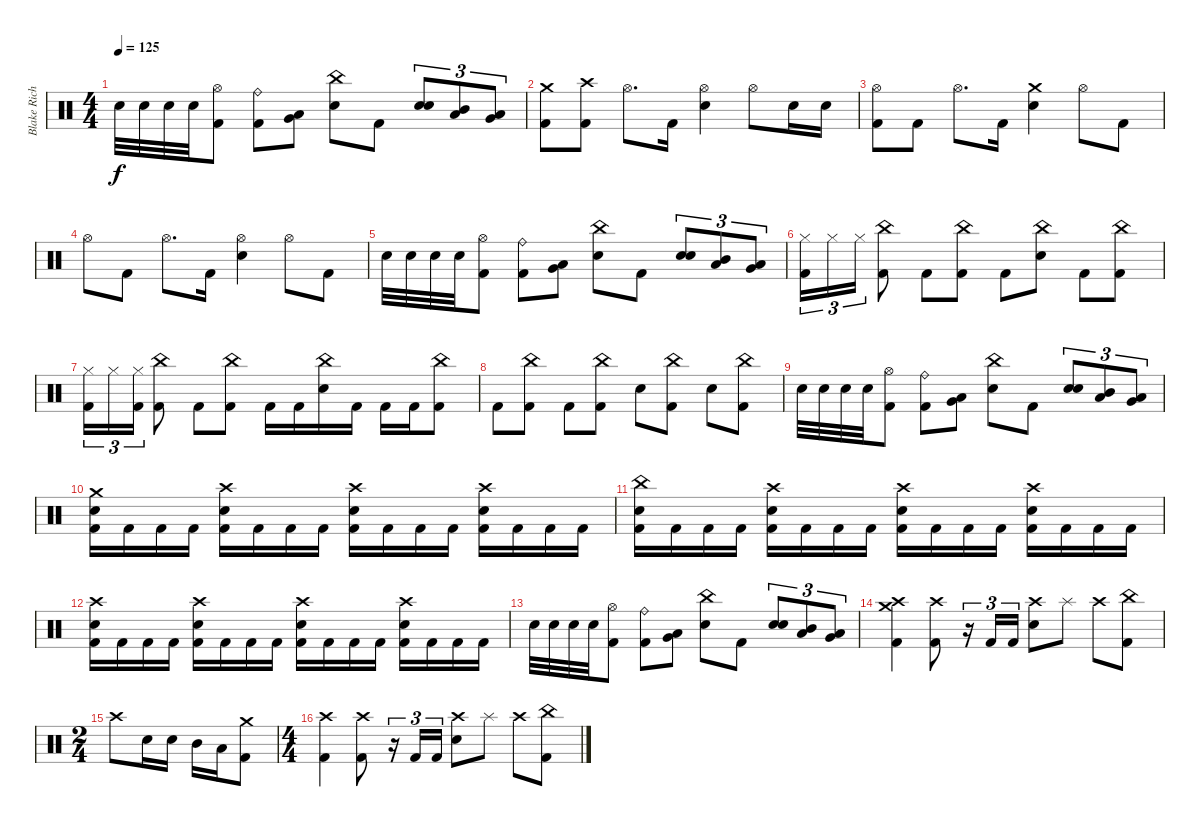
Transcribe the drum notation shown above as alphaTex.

\track ("Blake Richardson - Drums" "Blake Rich") {instrument percussion}
\staff {score}
\articulation defaults
\ts (4 4)
\tempo 125
\clef neutral
\ks c "Electric Snare (hit)".32{dy f} "Electric Snare (hit)".32 "Electric Snare (hit)".32 "Electric Snare (hit)".32
("Hi-Hat (open)" "Kick (hit) 2").8 ("Ride (bell)" "Kick (hit) 2").8 ("Low Tom (hit)" "Very Low Tom (hit)").8 ("China (hit)" "Electric Snare (hit)").8 "Kick (hit) 2".8 ("Electric Snare (hit)" "Electric Snare (hit)").8{tu (3 2)} ("Mid Tom (hit)" "Low Tom (hit)").8{tu (3 2)} ("Low Tom (hit)" "Very Low Tom (hit)").8{tu (3 2)} |
("Crash medium (hit)" "Kick (hit) 2").8 ("Crash high (hit)" "Kick (hit) 2").8 "Hi-Hat (open)".8{d} "Kick (hit) 2".16 ("Hi-Hat (open)" "Electric Snare (hit)").4 "Hi-Hat (open)".8 "Electric Snare (hit)".16 "Electric Snare (hit)".16 |
("Hi-Hat (open)" "Kick (hit) 2").8 "Kick (hit) 2".8 "Hi-Hat (open)".8{d} "Kick (hit) 2".16 ("Crash medium (hit)" "Electric Snare (hit)").4 "Hi-Hat (open)".8 "Kick (hit) 2".8 |
"Hi-Hat (open)".8 "Kick (hit) 2".8 "Hi-Hat (open)".8{d} "Kick (hit) 2".16 ("Hi-Hat (open)" "Electric Snare (hit)").4 "Hi-Hat (open)".8 "Kick (hit) 2".8 |
"Electric Snare (hit)".32 "Electric Snare (hit)".32 "Electric Snare (hit)".32 "Electric Snare (hit)".32 ("Hi-Hat (open)" "Kick (hit) 2").8 ("Ride (bell)" "Kick (hit) 2").8 ("Low Tom (hit)" "Very Low Tom (hit)").8 ("China (hit)" "Electric Snare (hit)").8 "Kick (hit) 2".8 ("Electric Snare (hit)" "Electric Snare (hit)").8{tu (3 2)} ("Mid Tom (hit)" "Low Tom (hit)").8{tu (3 2)} ("Low Tom (hit)" "Very Low Tom (hit)").8{tu (3 2)} |
("Hi-Hat (closed)" "Kick (hit) 2").16{tu (3 2)} "Hi-Hat (closed)".16{tu (3 2)} "Hi-Hat (closed)".16{tu (3 2)} ("China (hit)" "Kick (hit) 2").8 "Kick (hit) 2".8 ("China (hit)" "Kick (hit) 2").8 "Kick (hit) 2".8 ("China (hit)" "Electric Snare (hit)").8 "Kick (hit) 2".8 ("China (hit)" "Kick (hit) 2").8 |
("Hi-Hat (closed)" "Kick (hit) 2").16{tu (3 2)} "Hi-Hat (closed)".16{tu (3 2)} ("Hi-Hat (closed)" "Kick (hit) 2").16{tu (3 2)} ("China (hit)" "Kick (hit) 2").8 "Kick (hit) 2".8 ("China (hit)" "Kick (hit) 2").8 "Kick (hit) 2".16 "Kick (hit) 2".16 ("China (hit)" "Electric Snare (hit)").16 "Kick (hit) 2".16 "Kick (hit) 2".16 "Kick (hit) 2".16 ("China (hit)" "Kick (hit) 2").8 |
"Kick (hit) 2".8 ("China (hit)" "Kick (hit) 2").8 "Kick (hit) 2".8 ("China (hit)" "Kick (hit) 2").8 "Electric Snare (hit)".8 ("China (hit)" "Kick (hit) 2").8 "Electric Snare (hit)".8 ("China (hit)" "Kick (hit) 2").8 |
"Electric Snare (hit)".32 "Electric Snare (hit)".32 "Electric Snare (hit)".32 "Electric Snare (hit)".32 ("Hi-Hat (open)" "Kick (hit) 2").8 ("Ride (bell)" "Kick (hit) 2").8 ("Low Tom (hit)" "Very Low Tom (hit)").8 ("China (hit)" "Electric Snare (hit)").8 "Kick (hit) 2".8 ("Electric Snare (hit)" "Electric Snare (hit)").8{tu (3 2)} ("Mid Tom (hit)" "Low Tom (hit)").8{tu (3 2)} ("Low Tom (hit)" "Very Low Tom (hit)").8{tu (3 2)} |
("Crash medium (hit)" "Electric Snare (hit)" "Kick (hit) 2").16 "Kick (hit) 2".16 "Kick (hit) 2".16 "Kick (hit) 2".16 ("Crash high (hit)" "Electric Snare (hit)" "Kick (hit) 2").16 "Kick (hit) 2".16 "Kick (hit) 2".16 "Kick (hit) 2".16 ("Crash high (hit)" "Electric Snare (hit)" "Kick (hit) 2").16 "Kick (hit) 2".16 "Kick (hit) 2".16 "Kick (hit) 2".16 ("Crash high (hit)" "Electric Snare (hit)" "Kick (hit) 2").16 "Kick (hit) 2".16 "Kick (hit) 2".16 "Kick (hit) 2".16 |
("China (hit)" "Electric Snare (hit)" "Kick (hit) 2").16 "Kick (hit) 2".16 "Kick (hit) 2".16 "Kick (hit) 2".16 ("Crash high (hit)" "Electric Snare (hit)" "Kick (hit) 2").16 "Kick (hit) 2".16 "Kick (hit) 2".16 "Kick (hit) 2".16 ("Crash high (hit)" "Electric Snare (hit)" "Kick (hit) 2").16 "Kick (hit) 2".16 "Kick (hit) 2".16 "Kick (hit) 2".16 ("Crash high (hit)" "Electric Snare (hit)" "Kick (hit) 2").16 "Kick (hit) 2".16 "Kick (hit) 2".16 "Kick (hit) 2".16 |
("Crash high (hit)" "Electric Snare (hit)" "Kick (hit) 2").16 "Kick (hit) 2".16 "Kick (hit) 2".16 "Kick (hit) 2".16 ("Crash high (hit)" "Electric Snare (hit)" "Kick (hit) 2").16 "Kick (hit) 2".16 "Kick (hit) 2".16 "Kick (hit) 2".16 ("Crash high (hit)" "Electric Snare (hit)" "Kick (hit) 2").16 "Kick (hit) 2".16 "Kick (hit) 2".16 "Kick (hit) 2".16 ("Crash high (hit)" "Electric Snare (hit)" "Kick (hit) 2").16 "Kick (hit) 2".16 "Kick (hit) 2".16 "Kick (hit) 2".16 |
"Electric Snare (hit)".32 "Electric Snare (hit)".32 "Electric Snare (hit)".32 "Electric Snare (hit)".32 ("Hi-Hat (open)" "Kick (hit) 2").8 ("Ride (bell)" "Kick (hit) 2").8 ("Low Tom (hit)" "Very Low Tom (hit)").8 ("China (hit)" "Electric Snare (hit)").8 "Kick (hit) 2".8 ("Electric Snare (hit)" "Electric Snare (hit)").8{tu (3 2)} ("Mid Tom (hit)" "Low Tom (hit)").8{tu (3 2)} ("Low Tom (hit)" "Very Low Tom (hit)").8{tu (3 2)} |
("Crash high (hit)" "Crash medium (hit)" "Kick (hit) 2").4 ("Crash high (hit)" "Kick (hit) 2").8 r.16{tu (3 2)} "Kick (hit) 2".16{tu (3 2)} "Kick (hit) 2".16{tu (3 2)} ("Crash high (hit)" "Electric Snare (hit)").8 "Splash (hit)".8 "Crash high (hit)".8 ("China (hit)" "Kick (hit) 2").8 |
\ts (2 4)
"Crash high (hit)".8 "Electric Snare (hit)".16 "Electric Snare (hit)".16 "Mid Tom (hit)".16 "Low Tom (hit)".16 ("Crash medium (hit)" "Kick (hit) 2").8 |
\ts (4 4)
("Crash high (hit)" "Kick (hit) 2").4 ("Crash high (hit)" "Kick (hit) 2").8 r.16{tu (3 2)} "Kick (hit) 2".16{tu (3 2)} "Kick (hit) 2".16{tu (3 2)} ("Crash high (hit)" "Electric Snare (hit)").8 "Splash (hit)".8 "Crash high (hit)".8 ("China (hit)" "Kick (hit) 2").8
